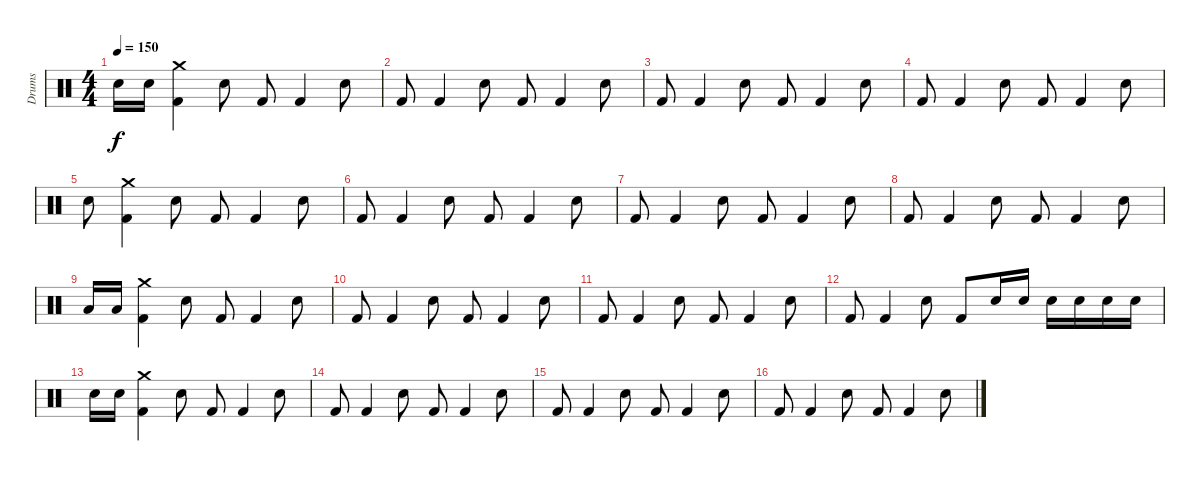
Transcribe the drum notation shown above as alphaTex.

\track ("Drums" "Drums") {instrument percussion}
\staff {score}
\articulation defaults
\ts (4 4)
\tempo 150
\clef neutral
\ks c "Snare (hit) 2".16{dy f} "Snare (hit) 2".16
("Crash medium (hit)" "Kick (hit) 2").4 "Snare (hit) 2".8 "Kick (hit) 2".8 "Kick (hit) 2".4 "Snare (hit) 2".8 |
"Kick (hit) 2".8 "Kick (hit) 2".4 "Snare (hit) 2".8 "Kick (hit) 2".8 "Kick (hit) 2".4 "Snare (hit) 2".8 |
"Kick (hit) 2".8 "Kick (hit) 2".4 "Snare (hit) 2".8 "Kick (hit) 2".8 "Kick (hit) 2".4 "Snare (hit) 2".8 |
"Kick (hit) 2".8 "Kick (hit) 2".4 "Snare (hit) 2".8 "Kick (hit) 2".8 "Kick (hit) 2".4 "Snare (hit) 2".8 |
"Snare (hit) 2".8 ("Crash medium (hit)" "Kick (hit) 2").4 "Snare (hit) 2".8 "Kick (hit) 2".8 "Kick (hit) 2".4 "Snare (hit) 2".8 |
"Kick (hit) 2".8 "Kick (hit) 2".4 "Snare (hit) 2".8 "Kick (hit) 2".8 "Kick (hit) 2".4 "Snare (hit) 2".8 |
"Kick (hit) 2".8 "Kick (hit) 2".4 "Snare (hit) 2".8 "Kick (hit) 2".8 "Kick (hit) 2".4 "Snare (hit) 2".8 |
"Kick (hit) 2".8 "Kick (hit) 2".4 "Snare (hit) 2".8 "Kick (hit) 2".8 "Kick (hit) 2".4 "Snare (hit) 2".8 |
"Low Tom (hit)".16 "Low Floor Tom (hit)".16 ("Crash medium (hit)" "Kick (hit) 2").4 "Snare (hit) 2".8 "Kick (hit) 2".8 "Kick (hit) 2".4 "Snare (hit) 2".8 |
"Kick (hit) 2".8 "Kick (hit) 2".4 "Snare (hit) 2".8 "Kick (hit) 2".8 "Kick (hit) 2".4 "Snare (hit) 2".8 |
"Kick (hit) 2".8 "Kick (hit) 2".4 "Snare (hit) 2".8 "Kick (hit) 2".8 "Kick (hit) 2".4 "Snare (hit) 2".8 |
"Kick (hit) 2".8 "Kick (hit) 2".4 "Snare (hit) 2".8 "Kick (hit) 2".8 "Snare (hit) 2".16 "Snare (hit) 2".16 "Snare (hit) 2".16 "Snare (hit) 2".16 "Snare (hit) 2".16 "Snare (hit) 2".16 |
"Snare (hit) 2".16 "Snare (hit) 2".16 ("Crash medium (hit)" "Kick (hit) 2").4 "Snare (hit) 2".8 "Kick (hit) 2".8 "Kick (hit) 2".4 "Snare (hit) 2".8 |
"Kick (hit) 2".8 "Kick (hit) 2".4 "Snare (hit) 2".8 "Kick (hit) 2".8 "Kick (hit) 2".4 "Snare (hit) 2".8 |
"Kick (hit) 2".8 "Kick (hit) 2".4 "Snare (hit) 2".8 "Kick (hit) 2".8 "Kick (hit) 2".4 "Snare (hit) 2".8 |
"Kick (hit) 2".8 "Kick (hit) 2".4 "Snare (hit) 2".8 "Kick (hit) 2".8 "Kick (hit) 2".4 "Snare (hit) 2".8
